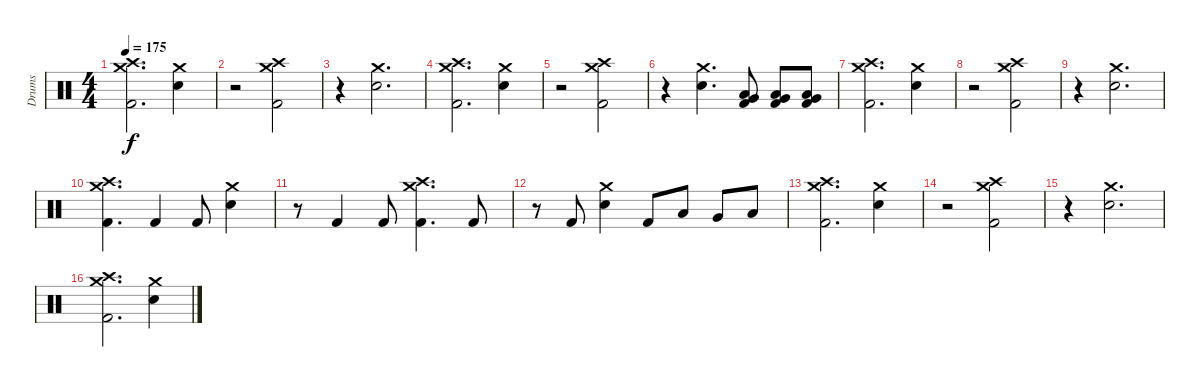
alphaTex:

\track ("Drums" "Drums") {instrument percussion}
\staff {score}
\articulation defaults
\ts (4 4)
\tempo 175
\clef neutral
\ks c
("Crash medium (hit)" "Crash high (hit)" "Kick (hit) 2").2{d dy f} ("Crash medium (hit)" "Electric Snare (hit)").4 |
r.2 ("Crash medium (hit)" "Crash high (hit)" "Kick (hit) 2").2 |
r.4 ("Crash medium (hit)" "Electric Snare (hit)").2{d} |
("Crash medium (hit)" "Crash high (hit)" "Kick (hit) 2").2{d} ("Crash medium (hit)" "Electric Snare (hit)").4 |
r.2 ("Crash medium (hit)" "Crash high (hit)" "Kick (hit) 2").2 |
r.4 ("Crash medium (hit)" "Electric Snare (hit)").4{d} ("Low Floor Tom (hit)" "Very Low Tom (hit)" "Kick (hit) 2").8 ("Low Floor Tom (hit)" "Very Low Tom (hit)" "Kick (hit) 2").8 ("Low Floor Tom (hit)" "Very Low Tom (hit)" "Kick (hit) 2").8 |
("Crash medium (hit)" "Crash high (hit)" "Kick (hit) 2").2{d} ("Crash medium (hit)" "Electric Snare (hit)").4 |
r.2 ("Crash medium (hit)" "Crash high (hit)" "Kick (hit) 2").2 |
r.4 ("Crash medium (hit)" "Electric Snare (hit)").2{d} |
("Crash medium (hit)" "Crash high (hit)" "Kick (hit) 2").4{d} "Kick (hit) 2".4 "Kick (hit) 2".8 ("Crash medium (hit)" "Electric Snare (hit)").4 |
r.8 "Kick (hit) 2".4 "Kick (hit) 2".8 ("Crash medium (hit)" "Crash high (hit)" "Kick (hit) 2").4{d} "Kick (hit) 2".8 |
r.8 "Kick (hit) 2".8 ("Crash medium (hit)" "Electric Snare (hit)").4 "Kick (hit) 2".8 "Low Tom (hit)".8 "Very Low Tom (hit)".8 "Low Floor Tom (hit)".8 |
("Crash medium (hit)" "Crash high (hit)" "Kick (hit) 2").2{d} ("Crash medium (hit)" "Electric Snare (hit)").4 |
r.2 ("Crash medium (hit)" "Crash high (hit)" "Kick (hit) 2").2 |
r.4 ("Crash medium (hit)" "Electric Snare (hit)").2{d} |
("Crash medium (hit)" "Crash high (hit)" "Kick (hit) 2").2{d} ("Crash medium (hit)" "Electric Snare (hit)").4
